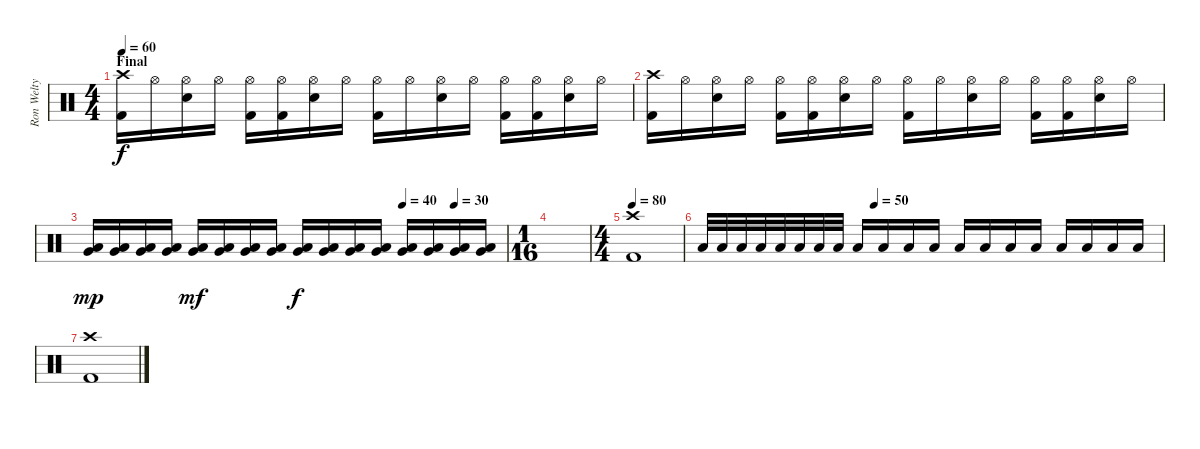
\track ("Ron Welty" "Ron Welty") {instrument percussion}
\staff {score}
\articulation defaults
\ts (4 4)
\section ("" "Final")
\tempo 60
\clef neutral
\ks c
("Crash high (hit)" "Kick (hit) 2").16{dy f} "Hi-Hat (open)".16 ("Hi-Hat (open)" "Snare (hit) 2").16 "Hi-Hat (open)".16 ("Hi-Hat (open)" "Kick (hit) 2").16 ("Hi-Hat (open)" "Kick (hit) 2").16 ("Hi-Hat (open)" "Snare (hit) 2").16 "Hi-Hat (open)".16 ("Hi-Hat (open)" "Kick (hit) 2").16 "Hi-Hat (open)".16 ("Hi-Hat (open)" "Snare (hit) 2").16 "Hi-Hat (open)".16 ("Hi-Hat (open)" "Kick (hit) 2").16 ("Hi-Hat (open)" "Kick (hit) 2").16 ("Hi-Hat (open)" "Snare (hit) 2").16 "Hi-Hat (open)".16 |
("Crash high (hit)" "Kick (hit) 2").16 "Hi-Hat (open)".16 ("Hi-Hat (open)" "Snare (hit) 2").16 "Hi-Hat (open)".16 ("Hi-Hat (open)" "Kick (hit) 2").16 ("Hi-Hat (open)" "Kick (hit) 2").16 ("Hi-Hat (open)" "Snare (hit) 2").16 "Hi-Hat (open)".16 ("Hi-Hat (open)" "Kick (hit) 2").16 "Hi-Hat (open)".16 ("Hi-Hat (open)" "Snare (hit) 2").16 "Hi-Hat (open)".16 ("Hi-Hat (open)" "Kick (hit) 2").16 ("Hi-Hat (open)" "Kick (hit) 2").16 ("Hi-Hat (open)" "Snare (hit) 2").16 "Hi-Hat (open)".16 |
\tempo (40 0.75)
\tempo (30 0.875)
("Low Tom (hit)" "Very Low Tom (hit)").16{dy mp} ("Low Tom (hit)" "Very Low Tom (hit)").16 ("Low Tom (hit)" "Very Low Tom (hit)").16 ("Low Tom (hit)" "Very Low Tom (hit)").16 ("Low Tom (hit)" "Very Low Tom (hit)").16{dy mf} ("Low Tom (hit)" "Very Low Tom (hit)").16 ("Low Tom (hit)" "Very Low Tom (hit)").16 ("Low Tom (hit)" "Very Low Tom (hit)").16 ("Low Tom (hit)" "Very Low Tom (hit)").16{dy f} ("Low Tom (hit)" "Very Low Tom (hit)").16 ("Low Tom (hit)" "Very Low Tom (hit)").16 ("Low Tom (hit)" "Very Low Tom (hit)").16 ("Low Tom (hit)" "Very Low Tom (hit)").16 ("Low Tom (hit)" "Very Low Tom (hit)").16 ("Low Tom (hit)" "Very Low Tom (hit)").16 ("Low Tom (hit)" "Very Low Tom (hit)").16 |
\ts (1 16)
|
\ts (4 4)
\tempo 80
("Crash high (hit)" "Kick (hit) 2").1 |
\tempo (50 0.375)
"Low Tom (hit)".32 "Low Tom (hit)".32 "Low Tom (hit)".32 "Low Tom (hit)".32 "Low Tom (hit)".32 "Low Tom (hit)".32 "Low Tom (hit)".32 "Low Tom (hit)".32 "Low Tom (hit)".16 "Low Tom (hit)".16 "Low Tom (hit)".16 "Low Tom (hit)".16 "Low Tom (hit)".16 "Low Tom (hit)".16 "Low Tom (hit)".16 "Low Tom (hit)".16 "Low Tom (hit)".16 "Low Tom (hit)".16 "Low Tom (hit)".16 "Low Tom (hit)".16 |
("Crash high (hit)" "Kick (hit) 2").1
